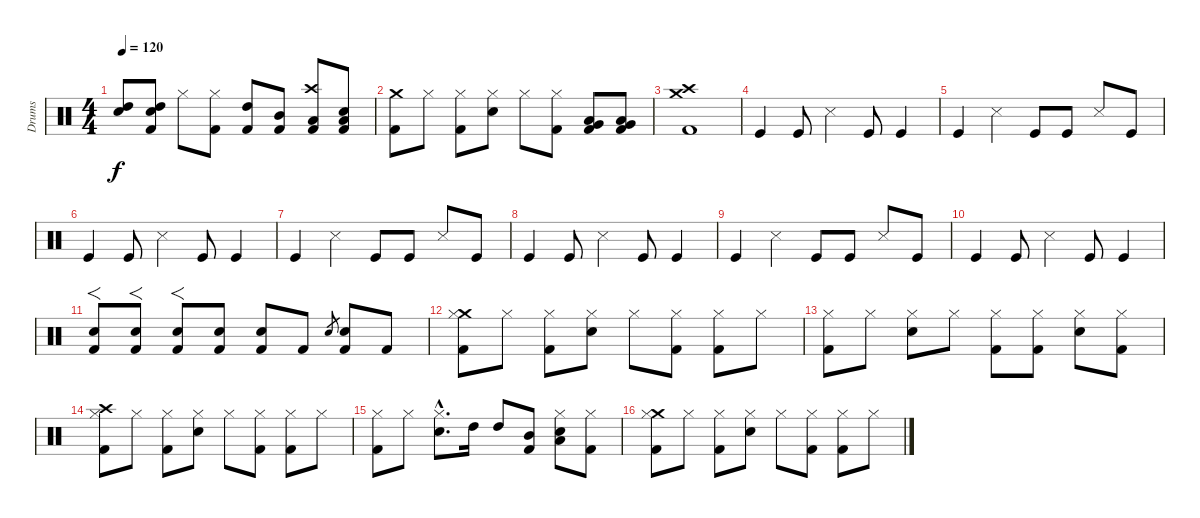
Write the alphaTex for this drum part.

\track ("Drums" "Drums") {instrument percussion}
\staff {score}
\articulation defaults
\ts (4 4)
\tempo 120
\clef neutral
\ks c
("Snare (hit) 2" "High Tom (hit)").8{dy f} ("Snare (hit) 2" "High Tom (hit)" "Kick (hit) 2").8 "Hi-Hat (closed)".8 ("Hi-Hat (closed)" "Kick (hit) 2").8 ("High Tom (hit)" "Kick (hit) 2").8 ("Mid Tom (hit)" "Kick (hit) 2").8 ("Crash high (hit)" "Low Tom (hit)" "Kick (hit) 2").8 ("Low Floor Tom (hit)" "Snare (hit) 2" "Kick (hit) 2").8 |
("Crash medium (hit)" "Kick (hit) 2").8 "Hi-Hat (closed)".8 ("Hi-Hat (closed)" "Kick (hit) 2").8 ("Hi-Hat (closed)" "Snare (hit) 2").8 "Hi-Hat (closed)".8 ("Hi-Hat (closed)" "Kick (hit) 2").8 ("Low Floor Tom (hit)" "Very Low Tom (hit)" "Kick (hit) 2").8 ("Low Floor Tom (hit)" "Very Low Tom (hit)" "Kick (hit) 2").8 |
("Crash medium (hit)" "Crash high (hit)" "Kick (hit) 2").1 |
"Kick (hit)".4 "Kick (hit)".8 "Snare (side stick) 3".4 "Kick (hit)".8 "Kick (hit)".4 |
"Kick (hit)".4 "Snare (side stick) 3".4 "Kick (hit)".8 "Kick (hit)".8 "Snare (side stick) 3".8 "Kick (hit)".8 |
"Kick (hit)".4 "Kick (hit)".8 "Snare (side stick) 3".4 "Kick (hit)".8 "Kick (hit)".4 |
"Kick (hit)".4 "Snare (side stick) 3".4 "Kick (hit)".8 "Kick (hit)".8 "Snare (side stick) 3".8 "Kick (hit)".8 |
"Kick (hit)".4 "Kick (hit)".8 "Snare (side stick) 3".4 "Kick (hit)".8 "Kick (hit)".4 |
"Kick (hit)".4 "Snare (side stick) 3".4 "Kick (hit)".8 "Kick (hit)".8 "Snare (side stick) 3".8 "Kick (hit)".8 |
"Kick (hit)".4 "Kick (hit)".8 "Snare (side stick) 3".4 "Kick (hit)".8 "Kick (hit)".4 |
("Snare (hit) 2" "Kick (hit) 2").8{f} ("Snare (hit) 2" "Kick (hit) 2").8{f} ("Snare (hit) 2" "Kick (hit) 2").8{f} ("Snare (hit) 2" "Kick (hit) 2").8 ("Snare (hit) 2" "Kick (hit) 2").8 "Kick (hit) 2".8 "Snare (hit) 2".8{gr} ("Snare (hit) 2" "Kick (hit) 2").8 "Kick (hit) 2".8 |
("Crash medium (hit)" "Hi-Hat (closed)" "Kick (hit) 2").8 "Hi-Hat (closed)".8 ("Hi-Hat (closed)" "Kick (hit) 2").8 ("Hi-Hat (closed)" "Snare (hit) 2").8 "Hi-Hat (closed)".8 ("Hi-Hat (closed)" "Kick (hit) 2").8 ("Hi-Hat (closed)" "Kick (hit) 2").8 "Hi-Hat (closed)".8 |
("Hi-Hat (closed)" "Kick (hit) 2").8 "Hi-Hat (closed)".8 ("Hi-Hat (closed)" "Snare (hit) 2").8 "Hi-Hat (closed)".8 ("Hi-Hat (closed)" "Kick (hit) 2").8 ("Hi-Hat (closed)" "Kick (hit) 2").8 ("Hi-Hat (closed)" "Snare (hit) 2").8 ("Hi-Hat (closed)" "Kick (hit) 2").8 |
("Crash high (hit)" "Hi-Hat (closed)" "Kick (hit) 2").8 "Hi-Hat (closed)".8 ("Hi-Hat (closed)" "Kick (hit) 2").8 ("Hi-Hat (closed)" "Snare (hit) 2").8 "Hi-Hat (closed)".8 ("Hi-Hat (closed)" "Kick (hit) 2").8 ("Hi-Hat (closed)" "Kick (hit) 2").8 "Hi-Hat (closed)".8 |
("Hi-Hat (closed)" "Kick (hit) 2").8 "Hi-Hat (closed)".8 ("Hi-Hat (closed)"{hac} "Snare (hit) 2"{hac}).8{d} "High Tom (hit)".16 "High Tom (hit)".8 ("Mid Tom (hit)" "Kick (hit) 2").8 ("Hi-Hat (closed)" "Low Tom (hit)" "Snare (hit) 2").8 ("Hi-Hat (closed)" "Kick (hit) 2").8 |
("Crash medium (hit)" "Hi-Hat (closed)" "Kick (hit) 2").8 "Hi-Hat (closed)".8 ("Hi-Hat (closed)" "Kick (hit) 2").8 ("Hi-Hat (closed)" "Snare (hit) 2").8 "Hi-Hat (closed)".8 ("Hi-Hat (closed)" "Kick (hit) 2").8 ("Hi-Hat (closed)" "Kick (hit) 2").8 "Hi-Hat (closed)".8
